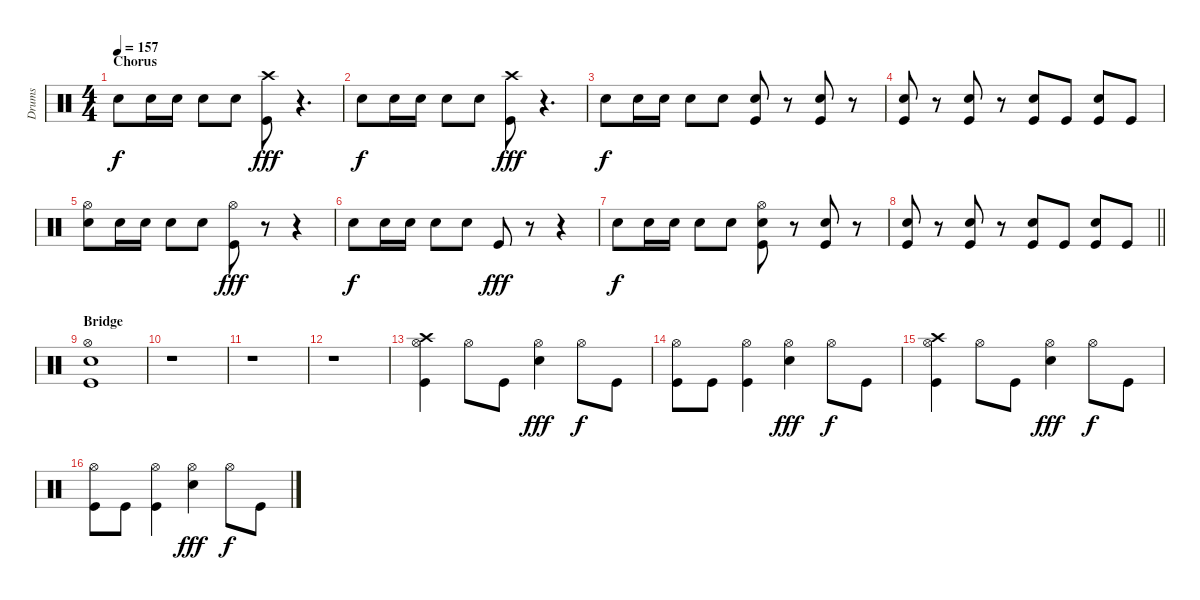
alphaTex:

\track ("Drums" "Drums") {instrument percussion}
\staff {score}
\articulation defaults
\ts (4 4)
\section ("" "Chorus")
\tempo 157
\clef neutral
\ks c "Snare (hit) 2".8{dy f} "Snare (hit) 2".16 "Snare (hit) 2".16 "Snare (hit) 2".8 "Snare (hit) 2".8
("Crash high (hit)" "Kick (hit)").8{dy fff} r.4{d} |
"Snare (hit) 2".8{dy f} "Snare (hit) 2".16 "Snare (hit) 2".16 "Snare (hit) 2".8 "Snare (hit) 2".8 ("Crash high (hit)" "Kick (hit)").8{dy fff} r.4{d} |
"Snare (hit) 2".8{dy f} "Snare (hit) 2".16 "Snare (hit) 2".16 "Snare (hit) 2".8 "Snare (hit) 2".8 ("Kick (hit)" "Snare (hit) 2").8 r.8 ("Kick (hit)" "Snare (hit) 2").8 r.8 |
("Kick (hit)" "Snare (hit) 2").8 r.8 ("Kick (hit)" "Snare (hit) 2").8 r.8 ("Kick (hit)" "Snare (hit) 2").8 "Kick (hit)".8 ("Kick (hit)" "Snare (hit) 2").8 "Kick (hit)".8 |
("Hi-Hat (open)" "Snare (hit) 2").8 "Snare (hit) 2".16 "Snare (hit) 2".16 "Snare (hit) 2".8 "Snare (hit) 2".8 ("Hi-Hat (open)" "Kick (hit)").8{dy fff} r.8 r.4 |
"Snare (hit) 2".8{dy f} "Snare (hit) 2".16 "Snare (hit) 2".16 "Snare (hit) 2".8 "Snare (hit) 2".8 "Kick (hit)".8{dy fff} r.8 r.4 |
"Snare (hit) 2".8{dy f} "Snare (hit) 2".16 "Snare (hit) 2".16 "Snare (hit) 2".8 "Snare (hit) 2".8 ("Hi-Hat (open)" "Kick (hit)" "Snare (hit) 2").8 r.8 ("Kick (hit)" "Snare (hit) 2").8 r.8 |
\barLineRight lightlight
("Kick (hit)" "Snare (hit) 2").8 r.8 ("Kick (hit)" "Snare (hit) 2").8 r.8 ("Kick (hit)" "Snare (hit) 2").8 "Kick (hit)".8 ("Kick (hit)" "Snare (hit) 2").8 "Kick (hit)".8 |
\section ("" "Bridge")
("Hi-Hat (open)" "Kick (hit)" "Snare (hit) 2").1 |
r.1 |
r.1 |
r.1 |
("Crash high (hit)" "Hi-Hat (open)" "Kick (hit)").4 "Hi-Hat (open)".8 "Kick (hit)".8 ("Hi-Hat (open)" "Snare (hit) 2").4{dy fff} "Hi-Hat (open)".8{dy f} "Kick (hit)".8 |
("Hi-Hat (open)" "Kick (hit)").8 "Kick (hit)".8 ("Hi-Hat (open)" "Kick (hit)").4 ("Hi-Hat (open)" "Snare (hit) 2").4{dy fff} "Hi-Hat (open)".8{dy f} "Kick (hit)".8 |
("Crash high (hit)" "Hi-Hat (open)" "Kick (hit)").4 "Hi-Hat (open)".8 "Kick (hit)".8 ("Hi-Hat (open)" "Snare (hit) 2").4{dy fff} "Hi-Hat (open)".8{dy f} "Kick (hit)".8 |
("Hi-Hat (open)" "Kick (hit)").8 "Kick (hit)".8 ("Hi-Hat (open)" "Kick (hit)").4 ("Hi-Hat (open)" "Snare (hit) 2").4{dy fff} "Hi-Hat (open)".8{dy f} "Kick (hit)".8
